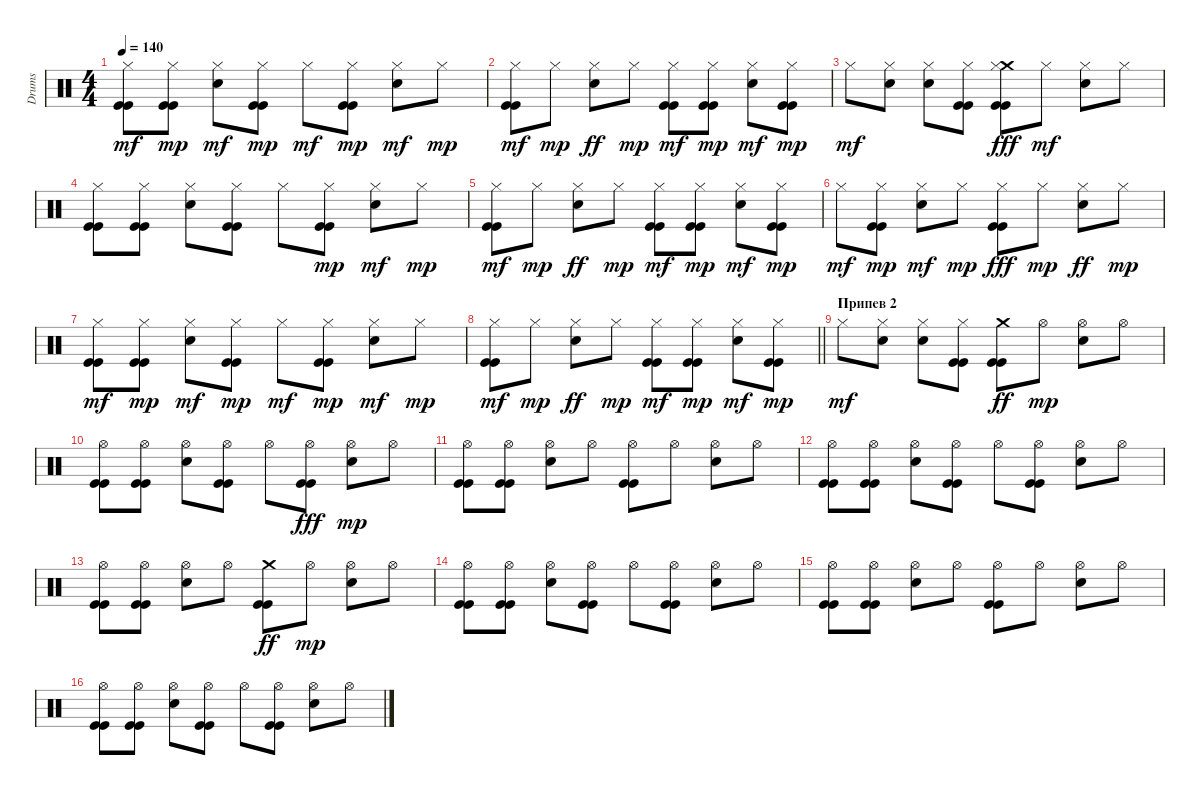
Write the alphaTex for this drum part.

\track ("Drums" "Drums") {instrument percussion}
\staff {score}
\articulation defaults
\ts (4 4)
\tempo 140
\clef neutral
\ks c
("Kick (hit)" "Kick (hit)" "Hi-Hat (closed)").8{dy mf} ("Kick (hit)" "Kick (hit)" "Hi-Hat (closed)").8{dy mp} ("Electric Snare (hit)" "Hi-Hat (closed)").8{dy mf} ("Kick (hit)" "Kick (hit)" "Hi-Hat (closed)").8{dy mp} "Hi-Hat (closed)".8{dy mf} ("Kick (hit)" "Kick (hit)" "Hi-Hat (closed)").8{dy mp} ("Electric Snare (hit)" "Hi-Hat (closed)").8{dy mf} "Hi-Hat (closed)".8{dy mp} |
("Kick (hit)" "Kick (hit)" "Hi-Hat (closed)").8{dy mf} "Hi-Hat (closed)".8{dy mp} ("Hi-Hat (closed)" "Electric Snare (hit)").8{dy ff} "Hi-Hat (closed)".8{dy mp} ("Kick (hit)" "Kick (hit)" "Hi-Hat (closed)").8{dy mf} ("Kick (hit)" "Kick (hit)" "Hi-Hat (closed)").8{dy mp} ("Electric Snare (hit)" "Hi-Hat (closed)").8{dy mf} ("Kick (hit)" "Kick (hit)" "Hi-Hat (closed)").8{dy mp} |
"Hi-Hat (closed)".8{dy mf} ("Electric Snare (hit)" "Hi-Hat (closed)").8 ("Electric Snare (hit)" "Hi-Hat (closed)").8 ("Kick (hit)" "Kick (hit)" "Hi-Hat (closed)").8 ("Kick (hit)" "Crash medium (hit)" "Hi-Hat (closed)" "Kick (hit)").8{dy fff} "Hi-Hat (closed)".8{dy mf} ("Electric Snare (hit)" "Hi-Hat (closed)").8 "Hi-Hat (closed)".8 |
("Kick (hit)" "Kick (hit)" "Hi-Hat (closed)").8 ("Kick (hit)" "Kick (hit)" "Hi-Hat (closed)").8 ("Electric Snare (hit)" "Hi-Hat (closed)").8 ("Kick (hit)" "Kick (hit)" "Hi-Hat (closed)").8 "Hi-Hat (closed)".8 ("Kick (hit)" "Kick (hit)" "Hi-Hat (closed)").8{dy mp} ("Electric Snare (hit)" "Hi-Hat (closed)").8{dy mf} "Hi-Hat (closed)".8{dy mp} |
("Kick (hit)" "Kick (hit)" "Hi-Hat (closed)").8{dy mf} "Hi-Hat (closed)".8{dy mp} ("Hi-Hat (closed)" "Electric Snare (hit)").8{dy ff} "Hi-Hat (closed)".8{dy mp} ("Kick (hit)" "Kick (hit)" "Hi-Hat (closed)").8{dy mf} ("Kick (hit)" "Kick (hit)" "Hi-Hat (closed)").8{dy mp} ("Electric Snare (hit)" "Hi-Hat (closed)").8{dy mf} ("Kick (hit)" "Kick (hit)" "Hi-Hat (closed)").8{dy mp} |
"Hi-Hat (closed)".8{dy mf} ("Kick (hit)" "Kick (hit)" "Hi-Hat (closed)").8{dy mp} ("Electric Snare (hit)" "Hi-Hat (closed)").8{dy mf} "Hi-Hat (closed)".8{dy mp} ("Kick (hit)" "Kick (hit)" "Hi-Hat (closed)").8{dy fff} "Hi-Hat (closed)".8{dy mp} ("Hi-Hat (closed)" "Electric Snare (hit)").8{dy ff} "Hi-Hat (closed)".8{dy mp} |
("Kick (hit)" "Kick (hit)" "Hi-Hat (closed)").8{dy mf} ("Kick (hit)" "Kick (hit)" "Hi-Hat (closed)").8{dy mp} ("Electric Snare (hit)" "Hi-Hat (closed)").8{dy mf} ("Kick (hit)" "Kick (hit)" "Hi-Hat (closed)").8{dy mp} "Hi-Hat (closed)".8{dy mf} ("Kick (hit)" "Kick (hit)" "Hi-Hat (closed)").8{dy mp} ("Electric Snare (hit)" "Hi-Hat (closed)").8{dy mf} "Hi-Hat (closed)".8{dy mp} |
\barLineRight lightlight
("Kick (hit)" "Kick (hit)" "Hi-Hat (closed)").8{dy mf} "Hi-Hat (closed)".8{dy mp} ("Hi-Hat (closed)" "Electric Snare (hit)").8{dy ff} "Hi-Hat (closed)".8{dy mp} ("Kick (hit)" "Kick (hit)" "Hi-Hat (closed)").8{dy mf} ("Kick (hit)" "Kick (hit)" "Hi-Hat (closed)").8{dy mp} ("Electric Snare (hit)" "Hi-Hat (closed)").8{dy mf} ("Kick (hit)" "Kick (hit)" "Hi-Hat (closed)").8{dy mp} |
\section ("" "Припев 2")
"Hi-Hat (closed)".8{dy mf} ("Electric Snare (hit)" "Hi-Hat (closed)").8 ("Electric Snare (hit)" "Hi-Hat (closed)").8 ("Kick (hit)" "Kick (hit)" "Hi-Hat (closed)").8 ("Kick (hit)" "Kick (hit)" "Crash medium (hit)").8{dy ff} "Hi-Hat (open)".8{dy mp} ("Electric Snare (hit)" "Hi-Hat (open)").8 "Hi-Hat (open)".8 |
("Kick (hit)" "Kick (hit)" "Hi-Hat (open)").8 ("Kick (hit)" "Kick (hit)" "Hi-Hat (open)").8 ("Electric Snare (hit)" "Hi-Hat (open)").8 ("Kick (hit)" "Kick (hit)" "Hi-Hat (open)").8 "Hi-Hat (open)".8 ("Kick (hit)" "Hi-Hat (open)" "Kick (hit)").8{dy fff} ("Electric Snare (hit)" "Hi-Hat (open)").8{dy mp} "Hi-Hat (open)".8 |
("Kick (hit)" "Kick (hit)" "Hi-Hat (open)").8 ("Kick (hit)" "Kick (hit)" "Hi-Hat (open)").8 ("Electric Snare (hit)" "Hi-Hat (open)").8 "Hi-Hat (open)".8 ("Kick (hit)" "Kick (hit)" "Hi-Hat (open)").8 "Hi-Hat (open)".8 ("Electric Snare (hit)" "Hi-Hat (open)").8 "Hi-Hat (open)".8 |
("Kick (hit)" "Kick (hit)" "Hi-Hat (open)").8 ("Kick (hit)" "Kick (hit)" "Hi-Hat (open)").8 ("Electric Snare (hit)" "Hi-Hat (open)").8 ("Kick (hit)" "Kick (hit)" "Hi-Hat (open)").8 "Hi-Hat (open)".8 ("Kick (hit)" "Kick (hit)" "Hi-Hat (open)").8 ("Electric Snare (hit)" "Hi-Hat (open)").8 "Hi-Hat (open)".8 |
("Kick (hit)" "Kick (hit)" "Hi-Hat (open)").8 ("Kick (hit)" "Kick (hit)" "Hi-Hat (open)").8 ("Hi-Hat (open)" "Electric Snare (hit)").8 "Hi-Hat (open)".8 ("Kick (hit)" "Kick (hit)" "Crash medium (hit)").8{dy ff} "Hi-Hat (open)".8{dy mp} ("Electric Snare (hit)" "Hi-Hat (open)").8 "Hi-Hat (open)".8 |
("Kick (hit)" "Kick (hit)" "Hi-Hat (open)").8 ("Kick (hit)" "Kick (hit)" "Hi-Hat (open)").8 ("Electric Snare (hit)" "Hi-Hat (open)").8 ("Kick (hit)" "Kick (hit)" "Hi-Hat (open)").8 "Hi-Hat (open)".8 ("Kick (hit)" "Kick (hit)" "Hi-Hat (open)").8 ("Electric Snare (hit)" "Hi-Hat (open)").8 "Hi-Hat (open)".8 |
("Kick (hit)" "Kick (hit)" "Hi-Hat (open)").8 ("Kick (hit)" "Kick (hit)" "Hi-Hat (open)").8 ("Electric Snare (hit)" "Hi-Hat (open)").8 "Hi-Hat (open)".8 ("Kick (hit)" "Kick (hit)" "Hi-Hat (open)").8 "Hi-Hat (open)".8 ("Electric Snare (hit)" "Hi-Hat (open)").8 "Hi-Hat (open)".8 |
("Kick (hit)" "Kick (hit)" "Hi-Hat (open)").8 ("Kick (hit)" "Kick (hit)" "Hi-Hat (open)").8 ("Electric Snare (hit)" "Hi-Hat (open)").8 ("Kick (hit)" "Kick (hit)" "Hi-Hat (open)").8 "Hi-Hat (open)".8 ("Kick (hit)" "Kick (hit)" "Hi-Hat (open)").8 ("Electric Snare (hit)" "Hi-Hat (open)").8 "Hi-Hat (open)".8
